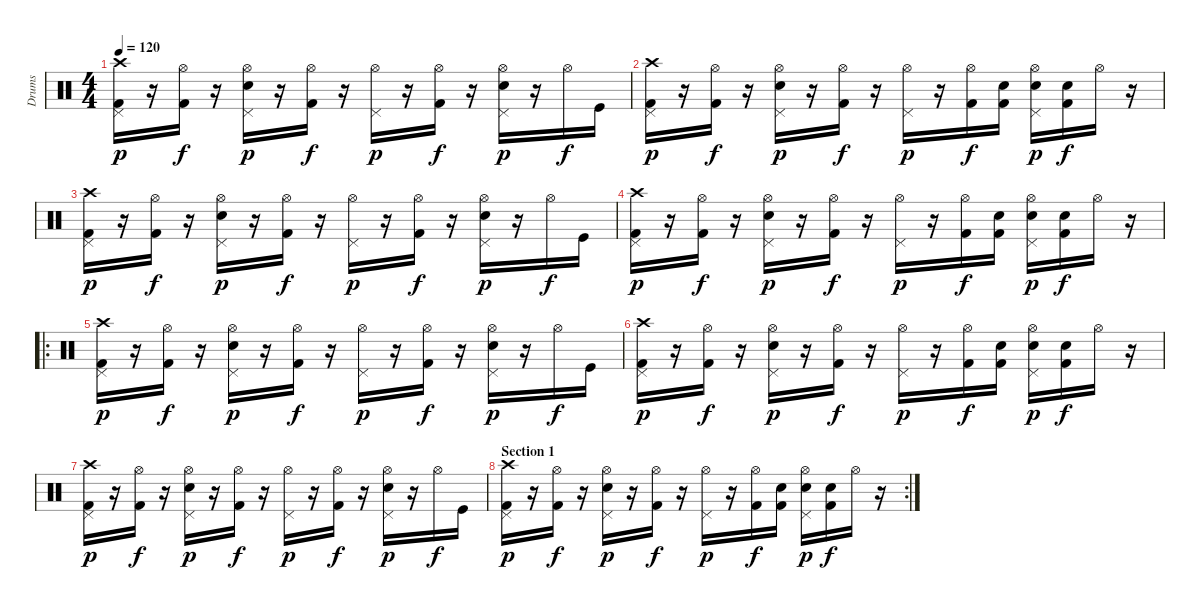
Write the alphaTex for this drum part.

\track ("Drums" "Drums") {instrument percussion}
\staff {score}
\articulation defaults
\ts (4 4)
\tempo 120
\clef neutral
\ks c
("Crash high (hit)" "Kick (hit) 2" "Pedal Hi-Hat (hit)").16{dy p} r.16 ("Kick (hit) 2" "Hi-Hat (open)").16{dy f} r.16 ("Snare (hit) 2" "Hi-Hat (open)" "Pedal Hi-Hat (hit)").16{dy p} r.16 ("Kick (hit) 2" "Hi-Hat (open)").16{dy f} r.16 ("Hi-Hat (open)" "Pedal Hi-Hat (hit)").16{dy p} r.16 ("Kick (hit) 2" "Hi-Hat (open)").16{dy f} r.16 ("Snare (hit) 2" "Hi-Hat (open)" "Pedal Hi-Hat (hit)").16{dy p} r.16 "Hi-Hat (open)".16{dy f} "Kick (hit)".16 |
("Crash high (hit)" "Kick (hit) 2" "Pedal Hi-Hat (hit)").16{dy p} r.16 ("Kick (hit) 2" "Hi-Hat (open)").16{dy f} r.16 ("Snare (hit) 2" "Hi-Hat (open)" "Pedal Hi-Hat (hit)").16{dy p} r.16 ("Kick (hit) 2" "Hi-Hat (open)").16{dy f} r.16 ("Hi-Hat (open)" "Pedal Hi-Hat (hit)").16{dy p} r.16 ("Kick (hit) 2" "Hi-Hat (open)").16{dy f} ("Snare (hit)" "Kick (hit) 2").16 ("Snare (hit) 2" "Hi-Hat (open)" "Pedal Hi-Hat (hit)").16{dy p} ("Snare (hit)" "Kick (hit) 2").16{dy f} "Hi-Hat (open)".16 r.16 |
("Crash high (hit)" "Kick (hit) 2" "Pedal Hi-Hat (hit)").16{dy p} r.16 ("Kick (hit) 2" "Hi-Hat (open)").16{dy f} r.16 ("Snare (hit) 2" "Hi-Hat (open)" "Pedal Hi-Hat (hit)").16{dy p} r.16 ("Kick (hit) 2" "Hi-Hat (open)").16{dy f} r.16 ("Hi-Hat (open)" "Pedal Hi-Hat (hit)").16{dy p} r.16 ("Kick (hit) 2" "Hi-Hat (open)").16{dy f} r.16 ("Snare (hit) 2" "Hi-Hat (open)" "Pedal Hi-Hat (hit)").16{dy p} r.16 "Hi-Hat (open)".16{dy f} "Kick (hit)".16 |
("Crash high (hit)" "Kick (hit) 2" "Pedal Hi-Hat (hit)").16{dy p} r.16 ("Kick (hit) 2" "Hi-Hat (open)").16{dy f} r.16 ("Snare (hit) 2" "Hi-Hat (open)" "Pedal Hi-Hat (hit)").16{dy p} r.16 ("Kick (hit) 2" "Hi-Hat (open)").16{dy f} r.16 ("Hi-Hat (open)" "Pedal Hi-Hat (hit)").16{dy p} r.16 ("Kick (hit) 2" "Hi-Hat (open)").16{dy f} ("Snare (hit)" "Kick (hit) 2").16 ("Snare (hit) 2" "Hi-Hat (open)" "Pedal Hi-Hat (hit)").16{dy p} ("Snare (hit)" "Kick (hit) 2").16{dy f} "Hi-Hat (open)".16 r.16 |
\ro
("Crash high (hit)" "Kick (hit) 2" "Pedal Hi-Hat (hit)").16{dy p volume 16} r.16 ("Kick (hit) 2" "Hi-Hat (open)").16{dy f} r.16 ("Snare (hit) 2" "Hi-Hat (open)" "Pedal Hi-Hat (hit)").16{dy p} r.16 ("Kick (hit) 2" "Hi-Hat (open)").16{dy f} r.16 ("Hi-Hat (open)" "Pedal Hi-Hat (hit)").16{dy p} r.16 ("Kick (hit) 2" "Hi-Hat (open)").16{dy f} r.16 ("Snare (hit) 2" "Hi-Hat (open)" "Pedal Hi-Hat (hit)").16{dy p} r.16 "Hi-Hat (open)".16{dy f} "Kick (hit)".16 |
("Crash high (hit)" "Kick (hit) 2" "Pedal Hi-Hat (hit)").16{dy p} r.16 ("Kick (hit) 2" "Hi-Hat (open)").16{dy f} r.16 ("Snare (hit) 2" "Hi-Hat (open)" "Pedal Hi-Hat (hit)").16{dy p} r.16 ("Kick (hit) 2" "Hi-Hat (open)").16{dy f} r.16 ("Hi-Hat (open)" "Pedal Hi-Hat (hit)").16{dy p} r.16 ("Kick (hit) 2" "Hi-Hat (open)").16{dy f} ("Snare (hit)" "Kick (hit) 2").16 ("Snare (hit) 2" "Hi-Hat (open)" "Pedal Hi-Hat (hit)").16{dy p} ("Snare (hit)" "Kick (hit) 2").16{dy f} "Hi-Hat (open)".16 r.16 |
("Crash high (hit)" "Kick (hit) 2" "Pedal Hi-Hat (hit)").16{dy p volume 16} r.16 ("Kick (hit) 2" "Hi-Hat (open)").16{dy f} r.16 ("Snare (hit) 2" "Hi-Hat (open)" "Pedal Hi-Hat (hit)").16{dy p} r.16 ("Kick (hit) 2" "Hi-Hat (open)").16{dy f} r.16 ("Hi-Hat (open)" "Pedal Hi-Hat (hit)").16{dy p} r.16 ("Kick (hit) 2" "Hi-Hat (open)").16{dy f} r.16 ("Snare (hit) 2" "Hi-Hat (open)" "Pedal Hi-Hat (hit)").16{dy p} r.16 "Hi-Hat (open)".16{dy f} "Kick (hit)".16 |
\rc 2
\section ("" "Section 1")
("Crash high (hit)" "Kick (hit) 2" "Pedal Hi-Hat (hit)").16{dy p} r.16 ("Kick (hit) 2" "Hi-Hat (open)").16{dy f} r.16 ("Snare (hit) 2" "Hi-Hat (open)" "Pedal Hi-Hat (hit)").16{dy p} r.16 ("Kick (hit) 2" "Hi-Hat (open)").16{dy f} r.16 ("Hi-Hat (open)" "Pedal Hi-Hat (hit)").16{dy p} r.16 ("Kick (hit) 2" "Hi-Hat (open)").16{dy f} ("Snare (hit)" "Kick (hit) 2").16 ("Snare (hit) 2" "Hi-Hat (open)" "Pedal Hi-Hat (hit)").16{dy p} ("Snare (hit)" "Kick (hit) 2").16{dy f} "Hi-Hat (open)".16 r.16
